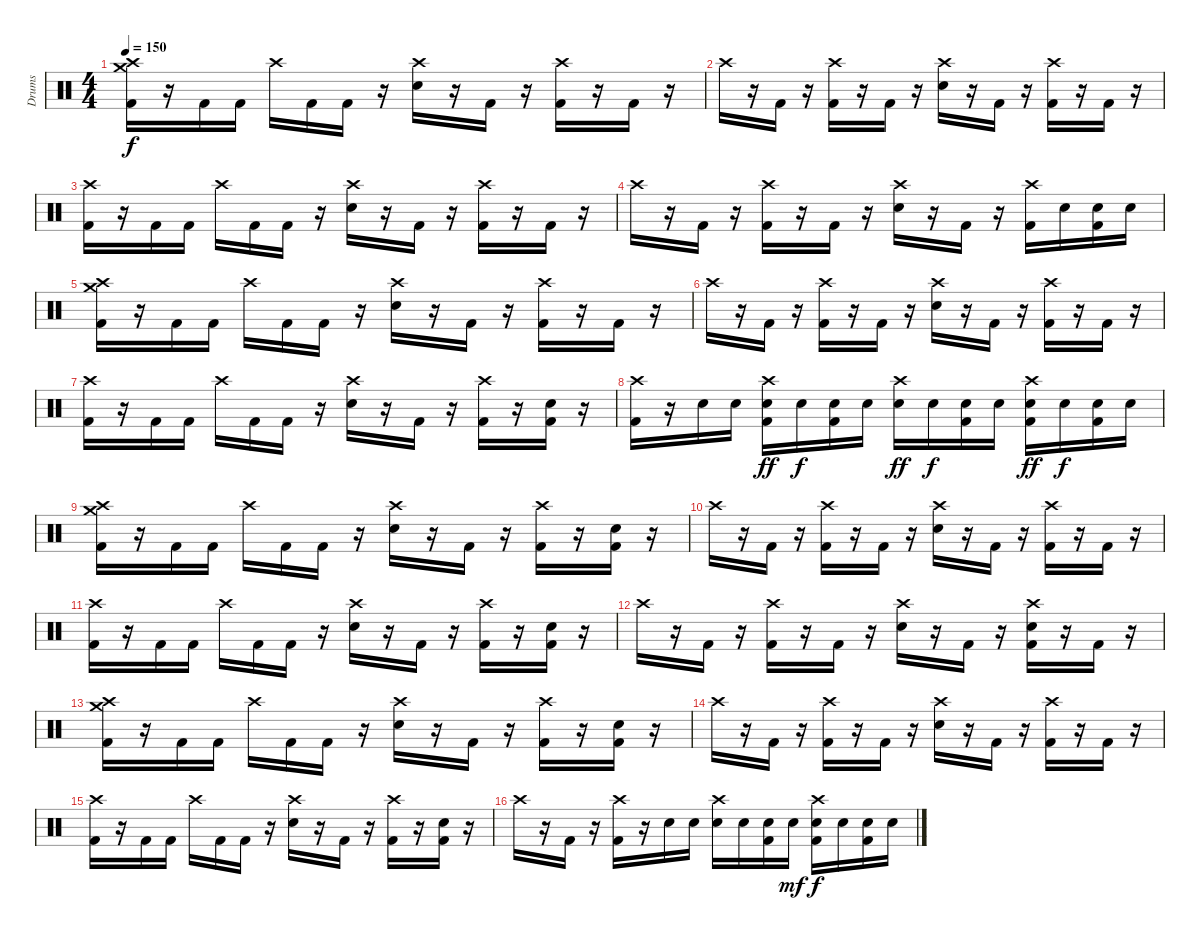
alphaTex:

\track ("Drums" "Drums") {instrument percussion}
\staff {score}
\articulation defaults
\ts (4 4)
\tempo 150
\clef neutral
\ks c
("Crash medium (hit)" "Crash high (hit)" "Kick (hit) 2").16{dy f} r.16 "Kick (hit) 2".16 "Kick (hit) 2".16 "Crash high (hit)".16 "Kick (hit) 2".16 "Kick (hit) 2".16 r.16 ("Crash high (hit)" "Electric Snare (hit)").16 r.16 "Kick (hit) 2".16 r.16 ("Crash high (hit)" "Kick (hit) 2").16 r.16 "Kick (hit) 2".16 r.16 |
"Crash high (hit)".16 r.16 "Kick (hit) 2".16 r.16 ("Crash high (hit)" "Kick (hit) 2").16 r.16 "Kick (hit) 2".16 r.16 ("Crash high (hit)" "Electric Snare (hit)").16 r.16 "Kick (hit) 2".16 r.16 ("Crash high (hit)" "Kick (hit) 2").16 r.16 "Kick (hit) 2".16 r.16 |
("Crash high (hit)" "Kick (hit) 2").16 r.16 "Kick (hit) 2".16 "Kick (hit) 2".16 "Crash high (hit)".16 "Kick (hit) 2".16 "Kick (hit) 2".16 r.16 ("Crash high (hit)" "Electric Snare (hit)").16 r.16 "Kick (hit) 2".16 r.16 ("Crash high (hit)" "Kick (hit) 2").16 r.16 "Kick (hit) 2".16 r.16 |
"Crash high (hit)".16 r.16 "Kick (hit) 2".16 r.16 ("Crash high (hit)" "Kick (hit) 2").16 r.16 "Kick (hit) 2".16 r.16 ("Crash high (hit)" "Electric Snare (hit)").16 r.16 "Kick (hit) 2".16 r.16 ("Crash high (hit)" "Kick (hit) 2").16 "Electric Snare (hit)".16 ("Electric Snare (hit)" "Kick (hit) 2").16 "Electric Snare (hit)".16 |
("Crash medium (hit)" "Crash high (hit)" "Kick (hit) 2").16 r.16 "Kick (hit) 2".16 "Kick (hit) 2".16 "Crash high (hit)".16 "Kick (hit) 2".16 "Kick (hit) 2".16 r.16 ("Crash high (hit)" "Electric Snare (hit)").16 r.16 "Kick (hit) 2".16 r.16 ("Crash high (hit)" "Kick (hit) 2").16 r.16 "Kick (hit) 2".16 r.16 |
"Crash high (hit)".16 r.16 "Kick (hit) 2".16 r.16 ("Crash high (hit)" "Kick (hit) 2").16 r.16 "Kick (hit) 2".16 r.16 ("Crash high (hit)" "Electric Snare (hit)").16 r.16 "Kick (hit) 2".16 r.16 ("Crash high (hit)" "Kick (hit) 2").16 r.16 "Kick (hit) 2".16 r.16 |
("Crash high (hit)" "Kick (hit) 2").16 r.16 "Kick (hit) 2".16 "Kick (hit) 2".16 "Crash high (hit)".16 "Kick (hit) 2".16 "Kick (hit) 2".16 r.16 ("Crash high (hit)" "Electric Snare (hit)").16 r.16 "Kick (hit) 2".16 r.16 ("Crash high (hit)" "Kick (hit) 2").16 r.16 ("Electric Snare (hit)" "Kick (hit) 2").16 r.16 |
("Crash high (hit)" "Kick (hit) 2").16 r.16 "Electric Snare (hit)".16 "Electric Snare (hit)".16 ("Crash high (hit)" "Electric Snare (hit)" "Kick (hit) 2").16{dy ff} "Electric Snare (hit)".16{dy f} ("Electric Snare (hit)" "Kick (hit) 2").16 "Electric Snare (hit)".16 ("Crash high (hit)" "Electric Snare (hit)").16{dy ff} "Electric Snare (hit)".16{dy f} ("Electric Snare (hit)" "Kick (hit) 2").16 "Electric Snare (hit)".16 ("Crash high (hit)" "Electric Snare (hit)" "Kick (hit) 2").16{dy ff} "Electric Snare (hit)".16{dy f} ("Electric Snare (hit)" "Kick (hit) 2").16 "Electric Snare (hit)".16 |
("Crash medium (hit)" "Crash high (hit)" "Kick (hit) 2").16 r.16 "Kick (hit) 2".16 "Kick (hit) 2".16 "Crash high (hit)".16 "Kick (hit) 2".16 "Kick (hit) 2".16 r.16 ("Crash high (hit)" "Electric Snare (hit)").16 r.16 "Kick (hit) 2".16 r.16 ("Crash high (hit)" "Kick (hit) 2").16 r.16 ("Electric Snare (hit)" "Kick (hit) 2").16 r.16 |
"Crash high (hit)".16 r.16 "Kick (hit) 2".16 r.16 ("Crash high (hit)" "Kick (hit) 2").16 r.16 "Kick (hit) 2".16 r.16 ("Crash high (hit)" "Electric Snare (hit)").16 r.16 "Kick (hit) 2".16 r.16 ("Crash high (hit)" "Kick (hit) 2").16 r.16 "Kick (hit) 2".16 r.16 |
("Crash high (hit)" "Kick (hit) 2").16 r.16 "Kick (hit) 2".16 "Kick (hit) 2".16 "Crash high (hit)".16 "Kick (hit) 2".16 "Kick (hit) 2".16 r.16 ("Crash high (hit)" "Electric Snare (hit)").16 r.16 "Kick (hit) 2".16 r.16 ("Crash high (hit)" "Kick (hit) 2").16 r.16 ("Electric Snare (hit)" "Kick (hit) 2").16 r.16 |
"Crash high (hit)".16 r.16 "Kick (hit) 2".16 r.16 ("Crash high (hit)" "Kick (hit) 2").16 r.16 "Kick (hit) 2".16 r.16 ("Crash high (hit)" "Electric Snare (hit)").16 r.16 "Kick (hit) 2".16 r.16 ("Crash high (hit)" "Electric Snare (hit)" "Kick (hit) 2").16 r.16 "Kick (hit) 2".16 r.16 |
("Crash medium (hit)" "Crash high (hit)" "Kick (hit) 2").16 r.16 "Kick (hit) 2".16 "Kick (hit) 2".16 "Crash high (hit)".16 "Kick (hit) 2".16 "Kick (hit) 2".16 r.16 ("Crash high (hit)" "Electric Snare (hit)").16 r.16 "Kick (hit) 2".16 r.16 ("Crash high (hit)" "Kick (hit) 2").16 r.16 ("Electric Snare (hit)" "Kick (hit) 2").16 r.16 |
"Crash high (hit)".16 r.16 "Kick (hit) 2".16 r.16 ("Crash high (hit)" "Kick (hit) 2").16 r.16 "Kick (hit) 2".16 r.16 ("Crash high (hit)" "Electric Snare (hit)").16 r.16 "Kick (hit) 2".16 r.16 ("Crash high (hit)" "Kick (hit) 2").16 r.16 "Kick (hit) 2".16 r.16 |
("Crash high (hit)" "Kick (hit) 2").16 r.16 "Kick (hit) 2".16 "Kick (hit) 2".16 "Crash high (hit)".16 "Kick (hit) 2".16 "Kick (hit) 2".16 r.16 ("Crash high (hit)" "Electric Snare (hit)").16 r.16 "Kick (hit) 2".16 r.16 ("Crash high (hit)" "Kick (hit) 2").16 r.16 ("Electric Snare (hit)" "Kick (hit) 2").16 r.16 |
"Crash high (hit)".16 r.16 "Kick (hit) 2".16 r.16 ("Crash high (hit)" "Kick (hit) 2").16 r.16 "Electric Snare (hit)".16 "Electric Snare (hit)".16 ("Crash high (hit)" "Electric Snare (hit)").16 "Electric Snare (hit)".16 ("Electric Snare (hit)" "Kick (hit) 2").16 "Electric Snare (hit)".16{dy mf} ("Crash high (hit)" "Electric Snare (hit)" "Kick (hit) 2").16{dy f} "Electric Snare (hit)".16 ("Electric Snare (hit)" "Kick (hit) 2").16 "Electric Snare (hit)".16
